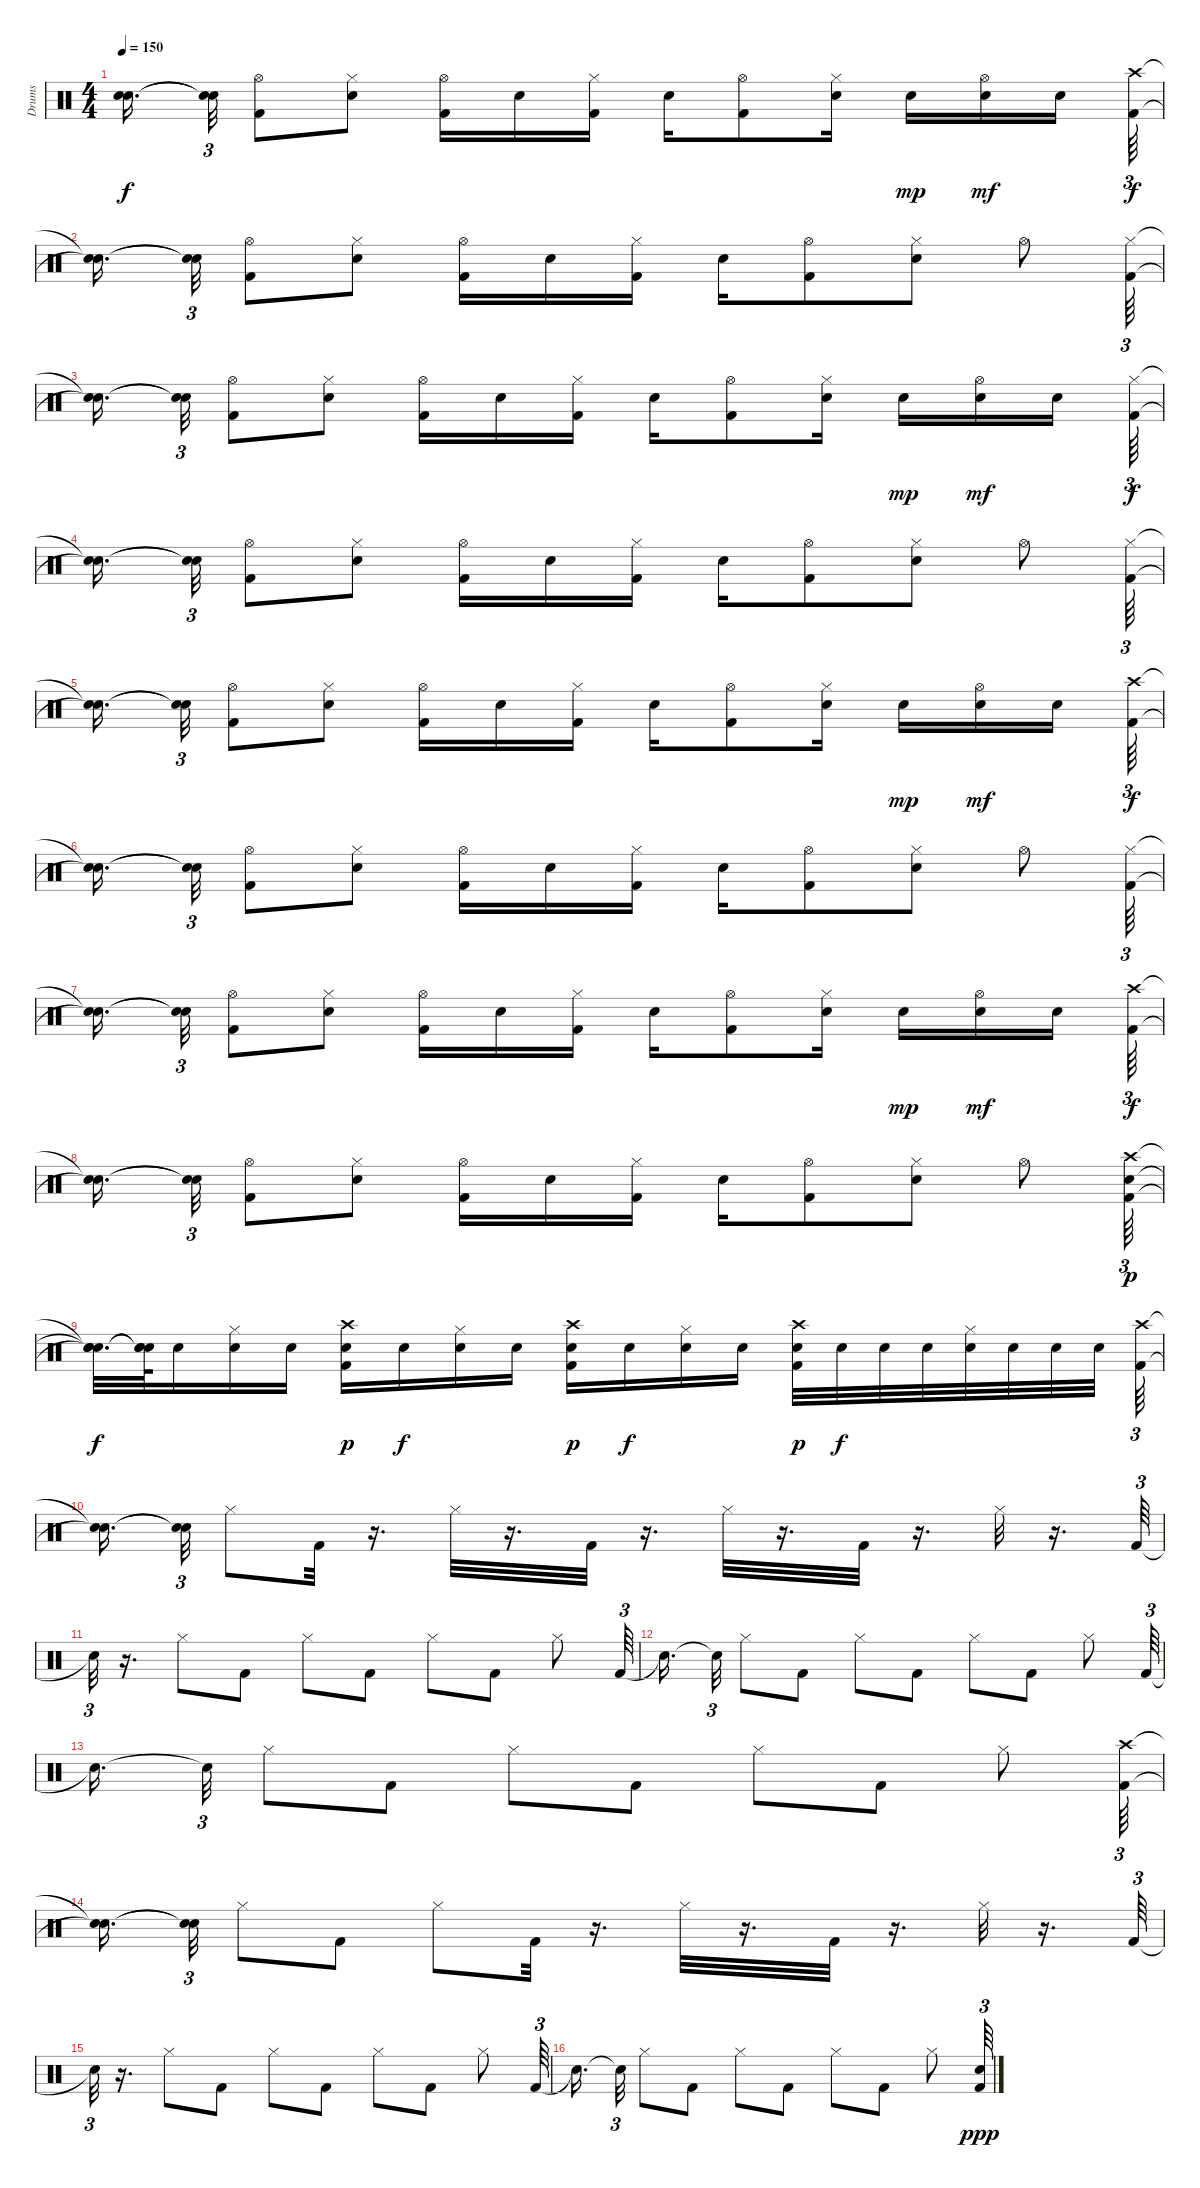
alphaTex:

\track ("Drums" "Drums") {instrument percussion}
\staff {score}
\articulation defaults
\ts (4 4)
\tempo 150
\clef neutral
\ks c
("Snare (hit)"{t} "Snare (hit)"{t}).16{d dy f} ("Snare (hit)"{t} "Snare (hit)"{t}).32{tu (3 2)} ("Hi-Hat (open)" "Kick (hit) 2").8 ("Electric Snare (hit)" "Hi-Hat (closed)").8 ("Hi-Hat (open)" "Kick (hit) 2").16 "Electric Snare (hit)".16 ("Hi-Hat (closed)" "Kick (hit) 2").16 "Electric Snare (hit)".16 ("Hi-Hat (open)" "Kick (hit) 2").8 ("Hi-Hat (closed)" "Electric Snare (hit)").16 "Electric Snare (hit)".16{dy mp} ("Hi-Hat (open)" "Electric Snare (hit)").16{dy mf} "Electric Snare (hit)".16 ("Crash high (hit)" "Kick (hit) 2").64{tu (3 2) dy f} |
("Snare (hit)"{t} "Snare (hit)"{t}).16{d} ("Snare (hit)"{t} "Snare (hit)"{t}).32{tu (3 2)} ("Hi-Hat (open)" "Kick (hit) 2").8 ("Hi-Hat (closed)" "Electric Snare (hit)").8 ("Kick (hit) 2" "Hi-Hat (open)").16 "Electric Snare (hit)".16 ("Kick (hit) 2" "Hi-Hat (closed)").16 "Electric Snare (hit)".16 ("Hi-Hat (open)" "Kick (hit) 2").8 ("Electric Snare (hit)" "Hi-Hat (closed)").8 "Hi-Hat (open)".8 ("Hi-Hat (closed)" "Kick (hit) 2").64{tu (3 2)} |
("Snare (hit)"{t} "Snare (hit)"{t}).16{d} ("Snare (hit)"{t} "Snare (hit)"{t}).32{tu (3 2)} ("Hi-Hat (open)" "Kick (hit) 2").8 ("Electric Snare (hit)" "Hi-Hat (closed)").8 ("Hi-Hat (open)" "Kick (hit) 2").16 "Electric Snare (hit)".16 ("Hi-Hat (closed)" "Kick (hit) 2").16 "Electric Snare (hit)".16 ("Hi-Hat (open)" "Kick (hit) 2").8 ("Hi-Hat (closed)" "Electric Snare (hit)").16 "Electric Snare (hit)".16{dy mp} ("Hi-Hat (open)" "Electric Snare (hit)").16{dy mf} "Electric Snare (hit)".16 ("Hi-Hat (closed)" "Kick (hit) 2").64{tu (3 2) dy f} |
("Snare (hit)"{t} "Snare (hit)"{t}).16{d} ("Snare (hit)"{t} "Snare (hit)"{t}).32{tu (3 2)} ("Hi-Hat (open)" "Kick (hit) 2").8 ("Hi-Hat (closed)" "Electric Snare (hit)").8 ("Kick (hit) 2" "Hi-Hat (open)").16 "Electric Snare (hit)".16 ("Kick (hit) 2" "Hi-Hat (closed)").16 "Electric Snare (hit)".16 ("Hi-Hat (open)" "Kick (hit) 2").8 ("Electric Snare (hit)" "Hi-Hat (closed)").8 "Hi-Hat (open)".8 ("Hi-Hat (closed)" "Kick (hit) 2").64{tu (3 2)} |
("Snare (hit)"{t} "Snare (hit)"{t}).16{d} ("Snare (hit)"{t} "Snare (hit)"{t}).32{tu (3 2)} ("Hi-Hat (open)" "Kick (hit) 2").8 ("Electric Snare (hit)" "Hi-Hat (closed)").8 ("Hi-Hat (open)" "Kick (hit) 2").16 "Electric Snare (hit)".16 ("Hi-Hat (closed)" "Kick (hit) 2").16 "Electric Snare (hit)".16 ("Hi-Hat (open)" "Kick (hit) 2").8 ("Hi-Hat (closed)" "Electric Snare (hit)").16 "Electric Snare (hit)".16{dy mp} ("Hi-Hat (open)" "Electric Snare (hit)").16{dy mf} "Electric Snare (hit)".16 ("Crash high (hit)" "Kick (hit) 2").64{tu (3 2) dy f} |
("Snare (hit)"{t} "Snare (hit)"{t}).16{d} ("Snare (hit)"{t} "Snare (hit)"{t}).32{tu (3 2)} ("Hi-Hat (open)" "Kick (hit) 2").8 ("Hi-Hat (closed)" "Electric Snare (hit)").8 ("Kick (hit) 2" "Hi-Hat (open)").16 "Electric Snare (hit)".16 ("Kick (hit) 2" "Hi-Hat (closed)").16 "Electric Snare (hit)".16 ("Hi-Hat (open)" "Kick (hit) 2").8 ("Electric Snare (hit)" "Hi-Hat (closed)").8 "Hi-Hat (open)".8 ("Hi-Hat (closed)" "Kick (hit) 2").64{tu (3 2)} |
("Snare (hit)"{t} "Snare (hit)"{t}).16{d} ("Snare (hit)"{t} "Snare (hit)"{t}).32{tu (3 2)} ("Hi-Hat (open)" "Kick (hit) 2").8 ("Electric Snare (hit)" "Hi-Hat (closed)").8 ("Hi-Hat (open)" "Kick (hit) 2").16 "Electric Snare (hit)".16 ("Hi-Hat (closed)" "Kick (hit) 2").16 "Electric Snare (hit)".16 ("Hi-Hat (open)" "Kick (hit) 2").8 ("Hi-Hat (closed)" "Electric Snare (hit)").16 "Electric Snare (hit)".16{dy mp} ("Hi-Hat (open)" "Electric Snare (hit)").16{dy mf} "Electric Snare (hit)".16 ("Crash high (hit)" "Kick (hit) 2").64{tu (3 2) dy f} |
("Snare (hit)"{t} "Snare (hit)"{t}).16{d} ("Snare (hit)"{t} "Snare (hit)"{t}).32{tu (3 2)} ("Hi-Hat (open)" "Kick (hit) 2").8 ("Hi-Hat (closed)" "Electric Snare (hit)").8 ("Kick (hit) 2" "Hi-Hat (open)").16 "Electric Snare (hit)".16 ("Kick (hit) 2" "Hi-Hat (closed)").16 "Electric Snare (hit)".16 ("Hi-Hat (open)" "Kick (hit) 2").8 ("Electric Snare (hit)" "Hi-Hat (closed)").8 "Hi-Hat (open)".8 ("Electric Snare (hit)" "Crash high (hit)" "Kick (hit) 2").64{tu (3 2) dy p} |
("Snare (hit)"{t} "Snare (hit)"{t} "Snare (hit)"{t}).32{d dy f} ("Snare (hit)"{t} "Snare (hit)"{t} "Snare (hit)"{t}).64 "Electric Snare (hit)".16 ("Electric Snare (hit)" "Hi-Hat (closed)").16 "Electric Snare (hit)".16 ("Electric Snare (hit)" "Kick (hit) 2" "Crash high (hit)").16{dy p} "Electric Snare (hit)".16{dy f} ("Electric Snare (hit)" "Hi-Hat (closed)").16 "Electric Snare (hit)".16 ("Electric Snare (hit)" "Kick (hit) 2" "Crash high (hit)").16{dy p} "Electric Snare (hit)".16{dy f} ("Electric Snare (hit)" "Hi-Hat (closed)").16 "Electric Snare (hit)".16 ("Electric Snare (hit)" "Kick (hit) 2" "Crash high (hit)").32{dy p} "Electric Snare (hit)".32{dy f} "Electric Snare (hit)".32 "Electric Snare (hit)".32 ("Electric Snare (hit)" "Hi-Hat (closed)").32 "Electric Snare (hit)".32 "Electric Snare (hit)".32 "Electric Snare (hit)".32 ("Crash high (hit)" "Kick (hit) 2").64{tu (3 2)} |
("Snare (hit)"{t} "Snare (hit)"{t}).16{d} ("Snare (hit)"{t} "Snare (hit)"{t}).32{tu (3 2)} "Hi-Hat (closed)".8 "Kick (hit) 2".32 r.16{d} "Hi-Hat (closed)".32 r.16{d} "Kick (hit) 2".32 r.16{d} "Hi-Hat (closed)".32 r.16{d} "Kick (hit) 2".32 r.16{d} "Hi-Hat (closed)".32 r.16{d} "Kick (hit) 2".64{tu (3 2)} |
"Snare (hit)"{t}.32{tu (3 2)} r.16{d} "Hi-Hat (closed)".8 "Kick (hit) 2".8 "Hi-Hat (closed)".8 "Kick (hit) 2".8 "Hi-Hat (closed)".8 "Kick (hit) 2".8 "Hi-Hat (closed)".8 "Kick (hit) 2".64{tu (3 2)} |
"Snare (hit)"{t}.16{d} "Snare (hit)"{t}.32{tu (3 2)} "Hi-Hat (closed)".8 "Kick (hit) 2".8 "Hi-Hat (closed)".8 "Kick (hit) 2".8 "Hi-Hat (closed)".8 "Kick (hit) 2".8 "Hi-Hat (closed)".8 "Kick (hit) 2".64{tu (3 2)} |
"Snare (hit)"{t}.16{d} "Snare (hit)"{t}.32{tu (3 2)} "Hi-Hat (closed)".8 "Kick (hit) 2".8 "Hi-Hat (closed)".8 "Kick (hit) 2".8 "Hi-Hat (closed)".8 "Kick (hit) 2".8 "Hi-Hat (closed)".8 ("Crash high (hit)" "Kick (hit) 2").64{tu (3 2)} |
("Snare (hit)"{t} "Snare (hit)"{t}).16{d} ("Snare (hit)"{t} "Snare (hit)"{t}).32{tu (3 2)} "Hi-Hat (closed)".8 "Kick (hit) 2".8 "Hi-Hat (closed)".8 "Kick (hit) 2".32 r.16{d} "Hi-Hat (closed)".32 r.16{d} "Kick (hit) 2".32 r.16{d} "Hi-Hat (closed)".32 r.16{d} "Kick (hit) 2".64{tu (3 2)} |
"Snare (hit)"{t}.32{tu (3 2)} r.16{d} "Hi-Hat (closed)".8 "Kick (hit) 2".8 "Hi-Hat (closed)".8 "Kick (hit) 2".8 "Hi-Hat (closed)".8 "Kick (hit) 2".8 "Hi-Hat (closed)".8 "Kick (hit) 2".64{tu (3 2)} |
"Snare (hit)"{t}.16{d} "Snare (hit)"{t}.32{tu (3 2)} "Hi-Hat (closed)".8 "Kick (hit) 2".8 "Hi-Hat (closed)".8 "Kick (hit) 2".8 "Hi-Hat (closed)".8 "Kick (hit) 2".8 "Hi-Hat (closed)".8 ("Kick (hit) 2" "Electric Snare (hit)").64{tu (3 2) dy ppp}
